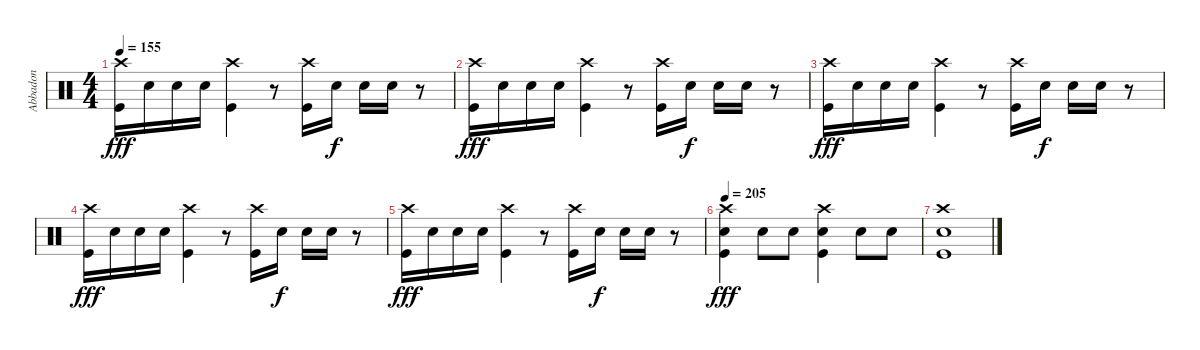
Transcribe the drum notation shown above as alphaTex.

\track ("Abbadon" "Abbadon") {instrument percussion}
\staff {score}
\articulation defaults
\ts (4 4)
\tempo 155
\clef neutral
\ks c
("Crash high (hit)" "Kick (hit)").16{dy fff} "Electric Snare (hit)".16 "Electric Snare (hit)".16 "Electric Snare (hit)".16 ("Crash high (hit)" "Kick (hit)").4 r.8 ("Crash high (hit)" "Kick (hit)").16 "Electric Snare (hit)".16{dy f} "Electric Snare (hit)".16 "Electric Snare (hit)".16 r.8 |
("Crash high (hit)" "Kick (hit)").16{dy fff} "Electric Snare (hit)".16 "Electric Snare (hit)".16 "Electric Snare (hit)".16 ("Crash high (hit)" "Kick (hit)").4 r.8 ("Crash high (hit)" "Kick (hit)").16 "Electric Snare (hit)".16{dy f} "Electric Snare (hit)".16 "Electric Snare (hit)".16 r.8 |
("Crash high (hit)" "Kick (hit)").16{dy fff} "Electric Snare (hit)".16 "Electric Snare (hit)".16 "Electric Snare (hit)".16 ("Crash high (hit)" "Kick (hit)").4 r.8 ("Crash high (hit)" "Kick (hit)").16 "Electric Snare (hit)".16{dy f} "Electric Snare (hit)".16 "Electric Snare (hit)".16 r.8 |
("Crash high (hit)" "Kick (hit)").16{dy fff} "Electric Snare (hit)".16 "Electric Snare (hit)".16 "Electric Snare (hit)".16 ("Crash high (hit)" "Kick (hit)").4 r.8 ("Crash high (hit)" "Kick (hit)").16 "Electric Snare (hit)".16{dy f} "Electric Snare (hit)".16 "Electric Snare (hit)".16 r.8 |
("Crash high (hit)" "Kick (hit)").16{dy fff} "Electric Snare (hit)".16 "Electric Snare (hit)".16 "Electric Snare (hit)".16 ("Crash high (hit)" "Kick (hit)").4 r.8 ("Crash high (hit)" "Kick (hit)").16 "Electric Snare (hit)".16{dy f} "Electric Snare (hit)".16 "Electric Snare (hit)".16 r.8 |
\tempo 205
("Crash high (hit)" "Electric Snare (hit)" "Kick (hit)").4{dy fff} "Electric Snare (hit)".8 "Electric Snare (hit)".8 ("Crash high (hit)" "Electric Snare (hit)" "Kick (hit)").4 "Electric Snare (hit)".8 "Electric Snare (hit)".8 |
("Crash high (hit)" "Electric Snare (hit)" "Kick (hit)").1
